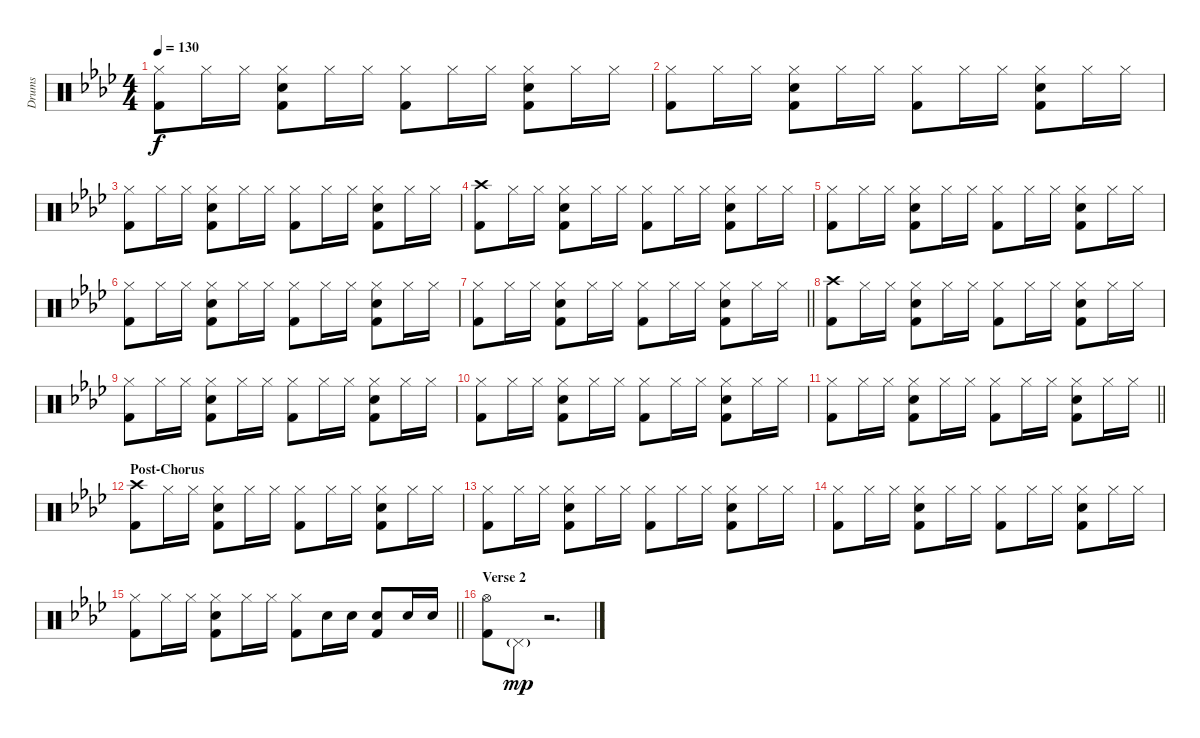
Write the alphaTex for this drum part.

\track ("Drums" "Drums") {instrument percussion}
\staff {score}
\articulation defaults
\ts (4 4)
\tempo 130
\clef neutral
\ks ab
("Hi-Hat (closed)" "Kick (hit) 2").8{dy f} "Hi-Hat (closed)".16 "Hi-Hat (closed)".16 ("Hi-Hat (closed)" "Snare (hit) 2" "Kick (hit) 2").8 "Hi-Hat (closed)".16 "Hi-Hat (closed)".16 ("Hi-Hat (closed)" "Kick (hit) 2").8 "Hi-Hat (closed)".16 "Hi-Hat (closed)".16 ("Hi-Hat (closed)" "Snare (hit) 2" "Kick (hit) 2").8 "Hi-Hat (closed)".16 "Hi-Hat (closed)".16 |
("Hi-Hat (closed)" "Kick (hit) 2").8 "Hi-Hat (closed)".16 "Hi-Hat (closed)".16 ("Hi-Hat (closed)" "Snare (hit) 2" "Kick (hit) 2").8 "Hi-Hat (closed)".16 "Hi-Hat (closed)".16 ("Hi-Hat (closed)" "Kick (hit) 2").8 "Hi-Hat (closed)".16 "Hi-Hat (closed)".16 ("Hi-Hat (closed)" "Snare (hit) 2" "Kick (hit) 2").8 "Hi-Hat (closed)".16 "Hi-Hat (closed)".16 |
("Hi-Hat (closed)" "Kick (hit) 2").8 "Hi-Hat (closed)".16 "Hi-Hat (closed)".16 ("Hi-Hat (closed)" "Snare (hit) 2" "Kick (hit) 2").8 "Hi-Hat (closed)".16 "Hi-Hat (closed)".16 ("Hi-Hat (closed)" "Kick (hit) 2").8 "Hi-Hat (closed)".16 "Hi-Hat (closed)".16 ("Hi-Hat (closed)" "Snare (hit) 2" "Kick (hit) 2").8 "Hi-Hat (closed)".16 "Hi-Hat (closed)".16 |
("Crash high (hit)" "Kick (hit) 2").8 "Hi-Hat (closed)".16 "Hi-Hat (closed)".16 ("Hi-Hat (closed)" "Snare (hit) 2" "Kick (hit) 2").8 "Hi-Hat (closed)".16 "Hi-Hat (closed)".16 ("Hi-Hat (closed)" "Kick (hit) 2").8 "Hi-Hat (closed)".16 "Hi-Hat (closed)".16 ("Hi-Hat (closed)" "Snare (hit) 2" "Kick (hit) 2").8 "Hi-Hat (closed)".16 "Hi-Hat (closed)".16 |
("Hi-Hat (closed)" "Kick (hit) 2").8 "Hi-Hat (closed)".16 "Hi-Hat (closed)".16 ("Hi-Hat (closed)" "Snare (hit) 2" "Kick (hit) 2").8 "Hi-Hat (closed)".16 "Hi-Hat (closed)".16 ("Hi-Hat (closed)" "Kick (hit) 2").8 "Hi-Hat (closed)".16 "Hi-Hat (closed)".16 ("Hi-Hat (closed)" "Snare (hit) 2" "Kick (hit) 2").8 "Hi-Hat (closed)".16 "Hi-Hat (closed)".16 |
("Hi-Hat (closed)" "Kick (hit) 2").8 "Hi-Hat (closed)".16 "Hi-Hat (closed)".16 ("Hi-Hat (closed)" "Snare (hit) 2" "Kick (hit) 2").8 "Hi-Hat (closed)".16 "Hi-Hat (closed)".16 ("Hi-Hat (closed)" "Kick (hit) 2").8 "Hi-Hat (closed)".16 "Hi-Hat (closed)".16 ("Hi-Hat (closed)" "Snare (hit) 2" "Kick (hit) 2").8 "Hi-Hat (closed)".16 "Hi-Hat (closed)".16 |
\barLineRight lightlight
("Hi-Hat (closed)" "Kick (hit) 2").8 "Hi-Hat (closed)".16 "Hi-Hat (closed)".16 ("Hi-Hat (closed)" "Snare (hit) 2" "Kick (hit) 2").8 "Hi-Hat (closed)".16 "Hi-Hat (closed)".16 ("Hi-Hat (closed)" "Kick (hit) 2").8 "Hi-Hat (closed)".16 "Hi-Hat (closed)".16 ("Hi-Hat (closed)" "Snare (hit) 2" "Kick (hit) 2").8 "Hi-Hat (closed)".16 "Hi-Hat (closed)".16 |
("Crash high (hit)" "Kick (hit) 2").8 "Hi-Hat (closed)".16 "Hi-Hat (closed)".16 ("Hi-Hat (closed)" "Snare (hit) 2" "Kick (hit) 2").8 "Hi-Hat (closed)".16 "Hi-Hat (closed)".16 ("Hi-Hat (closed)" "Kick (hit) 2").8 "Hi-Hat (closed)".16 "Hi-Hat (closed)".16 ("Hi-Hat (closed)" "Snare (hit) 2" "Kick (hit) 2").8 "Hi-Hat (closed)".16 "Hi-Hat (closed)".16 |
("Hi-Hat (closed)" "Kick (hit) 2").8 "Hi-Hat (closed)".16 "Hi-Hat (closed)".16 ("Hi-Hat (closed)" "Snare (hit) 2" "Kick (hit) 2").8 "Hi-Hat (closed)".16 "Hi-Hat (closed)".16 ("Hi-Hat (closed)" "Kick (hit) 2").8 "Hi-Hat (closed)".16 "Hi-Hat (closed)".16 ("Hi-Hat (closed)" "Snare (hit) 2" "Kick (hit) 2").8 "Hi-Hat (closed)".16 "Hi-Hat (closed)".16 |
("Hi-Hat (closed)" "Kick (hit) 2").8 "Hi-Hat (closed)".16 "Hi-Hat (closed)".16 ("Hi-Hat (closed)" "Snare (hit) 2" "Kick (hit) 2").8 "Hi-Hat (closed)".16 "Hi-Hat (closed)".16 ("Hi-Hat (closed)" "Kick (hit) 2").8 "Hi-Hat (closed)".16 "Hi-Hat (closed)".16 ("Hi-Hat (closed)" "Snare (hit) 2" "Kick (hit) 2").8 "Hi-Hat (closed)".16 "Hi-Hat (closed)".16 |
\barLineRight lightlight
("Hi-Hat (closed)" "Kick (hit) 2").8 "Hi-Hat (closed)".16 "Hi-Hat (closed)".16 ("Hi-Hat (closed)" "Snare (hit) 2" "Kick (hit) 2").8 "Hi-Hat (closed)".16 "Hi-Hat (closed)".16 ("Hi-Hat (closed)" "Kick (hit) 2").8 "Hi-Hat (closed)".16 "Hi-Hat (closed)".16 ("Hi-Hat (closed)" "Snare (hit) 2" "Kick (hit) 2").8 "Hi-Hat (closed)".16 "Hi-Hat (closed)".16 |
\section ("" "Post-Chorus")
("Crash high (hit)" "Kick (hit) 2").8 "Hi-Hat (closed)".16 "Hi-Hat (closed)".16 ("Hi-Hat (closed)" "Snare (hit) 2" "Kick (hit) 2").8 "Hi-Hat (closed)".16 "Hi-Hat (closed)".16 ("Hi-Hat (closed)" "Kick (hit) 2").8 "Hi-Hat (closed)".16 "Hi-Hat (closed)".16 ("Hi-Hat (closed)" "Snare (hit) 2" "Kick (hit) 2").8 "Hi-Hat (closed)".16 "Hi-Hat (closed)".16 |
("Hi-Hat (closed)" "Kick (hit) 2").8 "Hi-Hat (closed)".16 "Hi-Hat (closed)".16 ("Hi-Hat (closed)" "Snare (hit) 2" "Kick (hit) 2").8 "Hi-Hat (closed)".16 "Hi-Hat (closed)".16 ("Hi-Hat (closed)" "Kick (hit) 2").8 "Hi-Hat (closed)".16 "Hi-Hat (closed)".16 ("Hi-Hat (closed)" "Snare (hit) 2" "Kick (hit) 2").8 "Hi-Hat (closed)".16 "Hi-Hat (closed)".16 |
("Hi-Hat (closed)" "Kick (hit) 2").8 "Hi-Hat (closed)".16 "Hi-Hat (closed)".16 ("Hi-Hat (closed)" "Snare (hit) 2" "Kick (hit) 2").8 "Hi-Hat (closed)".16 "Hi-Hat (closed)".16 ("Hi-Hat (closed)" "Kick (hit) 2").8 "Hi-Hat (closed)".16 "Hi-Hat (closed)".16 ("Hi-Hat (closed)" "Snare (hit) 2" "Kick (hit) 2").8 "Hi-Hat (closed)".16 "Hi-Hat (closed)".16 |
\barLineRight lightlight
("Hi-Hat (closed)" "Kick (hit) 2").8 "Hi-Hat (closed)".16 "Hi-Hat (closed)".16 ("Hi-Hat (closed)" "Snare (hit) 2" "Kick (hit) 2").8 "Hi-Hat (closed)".16 "Hi-Hat (closed)".16 ("Hi-Hat (closed)" "Kick (hit) 2").8 "Snare (hit) 2".16 "Snare (hit) 2".16 ("Snare (hit) 2" "Kick (hit) 2").8 "Snare (hit) 2".16 "Snare (hit) 2".16 |
\section ("" "Verse 2")
("Hi-Hat (open)" "Kick (hit) 2").8 "Pedal Hi-Hat (hit)"{g}.8{dy mp} r.2{d}
